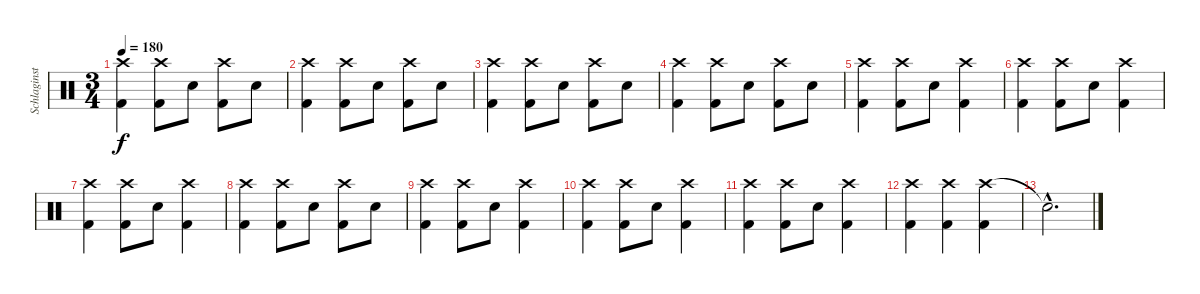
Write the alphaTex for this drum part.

\track ("Schlaginstrumente - Auswahl" "Schlaginst") {instrument percussion}
\staff {score}
\articulation defaults
\ts (3 4)
\tempo 180
\clef neutral
\ks c
("Crash high (hit)" "Kick (hit) 2").4{dy f} ("Crash high (hit)" "Kick (hit) 2").8 "Snare (hit) 2".8 ("Crash high (hit)" "Kick (hit) 2").8 "Snare (hit) 2".8 |
("Crash high (hit)" "Kick (hit) 2").4 ("Crash high (hit)" "Kick (hit) 2").8 "Snare (hit) 2".8 ("Crash high (hit)" "Kick (hit) 2").8 "Snare (hit) 2".8 |
("Crash high (hit)" "Kick (hit) 2").4 ("Crash high (hit)" "Kick (hit) 2").8 "Snare (hit) 2".8 ("Crash high (hit)" "Kick (hit) 2").8 "Snare (hit) 2".8 |
("Crash high (hit)" "Kick (hit) 2").4 ("Crash high (hit)" "Kick (hit) 2").8 "Snare (hit) 2".8 ("Crash high (hit)" "Kick (hit) 2").8 "Snare (hit) 2".8 |
("Crash high (hit)" "Kick (hit) 2").4 ("Crash high (hit)" "Kick (hit) 2").8 "Snare (hit) 2".8 ("Crash high (hit)" "Kick (hit) 2").4 |
("Crash high (hit)" "Kick (hit) 2").4 ("Crash high (hit)" "Kick (hit) 2").8 "Snare (hit) 2".8 ("Crash high (hit)" "Kick (hit) 2").4 |
("Crash high (hit)" "Kick (hit) 2").4 ("Crash high (hit)" "Kick (hit) 2").8 "Snare (hit) 2".8 ("Crash high (hit)" "Kick (hit) 2").4 |
("Crash high (hit)" "Kick (hit) 2").4 ("Crash high (hit)" "Kick (hit) 2").8 "Snare (hit) 2".8 ("Crash high (hit)" "Kick (hit) 2").8 "Snare (hit) 2".8 |
("Crash high (hit)" "Kick (hit) 2").4 ("Crash high (hit)" "Kick (hit) 2").8 "Snare (hit) 2".8 ("Crash high (hit)" "Kick (hit) 2").4 |
("Crash high (hit)" "Kick (hit) 2").4 ("Crash high (hit)" "Kick (hit) 2").8 "Snare (hit) 2".8 ("Crash high (hit)" "Kick (hit) 2").4 |
("Crash high (hit)" "Kick (hit) 2").4 ("Crash high (hit)" "Kick (hit) 2").8 "Snare (hit) 2".8 ("Crash high (hit)" "Kick (hit) 2").4 |
("Crash high (hit)" "Kick (hit) 2").4 ("Crash high (hit)" "Kick (hit) 2").4 ("Crash high (hit)" "Kick (hit) 2").4 |
"Snare (hit)"{hac t}.2{d}
